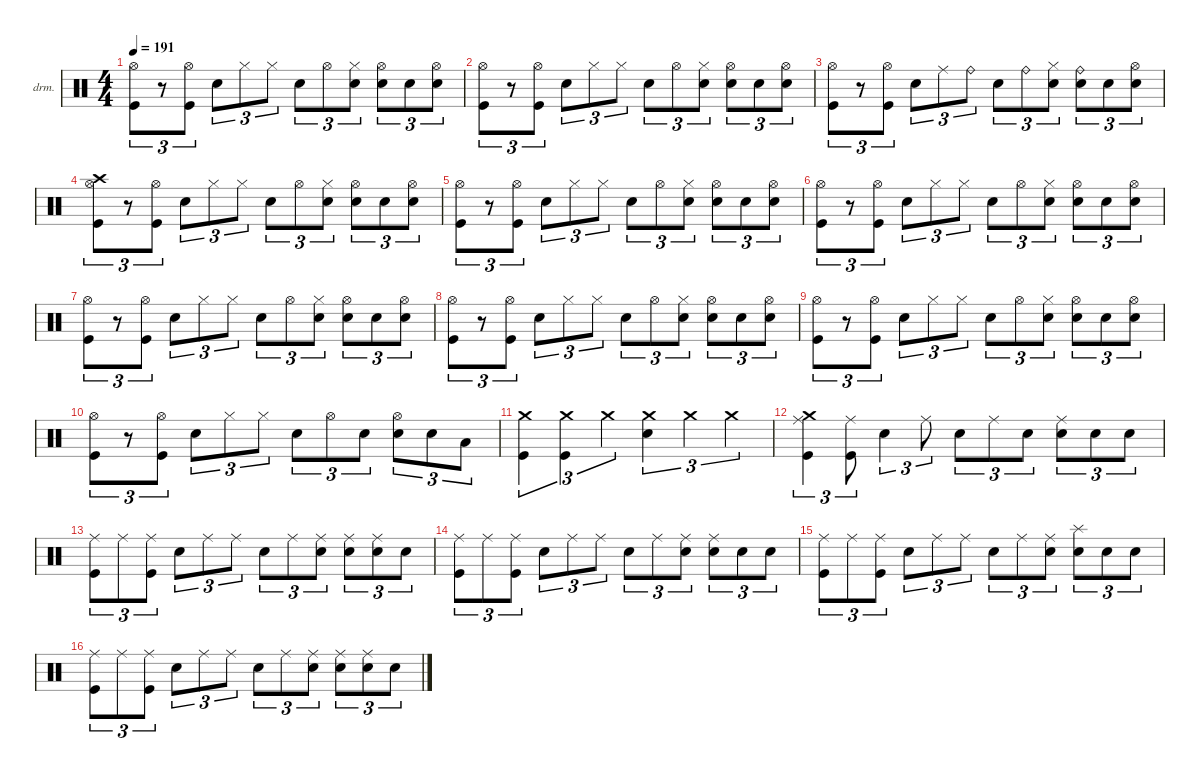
\defaultSystemsLayout 4
\hideDynamics
\bracketExtendMode nobrackets
\firstSystemTrackNameOrientation horizontal
\otherSystemsTrackNameOrientation horizontal
\track ("Drumkit" "drm.") {instrument percussion}
\staff {score}
\articulation defaults
\ts (4 4)
\tempo 191
\clef neutral
\ks c
("Kick (hit)" "Hi-Hat (open)").8{tu (3 2) dy mf beam Down} r.8{tu (3 2) beam Down} ("Kick (hit)" "Hi-Hat (open)").8{tu (3 2) beam Down} "Snare (hit) 2".8{tu (3 2) dy mp beam Down} "Hi-Hat (closed)".8{tu (3 2) beam Down} "Hi-Hat (closed)".8{tu (3 2) beam Down} "Snare (hit) 2".8{tu (3 2) dy f beam Down} "Hi-Hat (open)".8{tu (3 2) dy mp beam Down} ("Hi-Hat (closed)" "Snare (hit) 2").8{tu (3 2) dy p beam Down} ("Hi-Hat (open)" "Snare (hit) 2").8{tu (3 2) dy mp beam Down} "Snare (hit) 2".8{tu (3 2) beam Down} ("Snare (hit) 2" "Hi-Hat (open)").8{tu (3 2) beam Down} |
("Kick (hit)" "Hi-Hat (open)").8{tu (3 2) dy mf beam Down} r.8{tu (3 2) beam Down} ("Kick (hit)" "Hi-Hat (open)").8{tu (3 2) beam Down} "Snare (hit) 2".8{tu (3 2) dy mp beam Down} "Hi-Hat (closed)".8{tu (3 2) beam Down} "Hi-Hat (closed)".8{tu (3 2) beam Down} "Snare (hit) 2".8{tu (3 2) dy f beam Down} "Hi-Hat (open)".8{tu (3 2) dy mp beam Down} ("Hi-Hat (closed)" "Snare (hit) 2").8{tu (3 2) dy p beam Down} ("Hi-Hat (open)" "Snare (hit) 2").8{tu (3 2) dy mp beam Down} "Snare (hit) 2".8{tu (3 2) beam Down} ("Snare (hit) 2" "Hi-Hat (open)").8{tu (3 2) beam Down} |
("Kick (hit)" "Hi-Hat (open)").8{tu (3 2) dy mf beam Down} r.8{tu (3 2) beam Down} ("Kick (hit)" "Hi-Hat (open)").8{tu (3 2) beam Down} "Snare (hit) 2".8{tu (3 2) dy mp beam Down} "Ride (middle)".8{tu (3 2) beam Down} "Ride (bell)".8{tu (3 2) beam Down} "Snare (hit) 2".8{tu (3 2) dy f beam Down} "Ride (bell)".8{tu (3 2) dy mf beam Down} ("Hi-Hat (closed)" "Snare (hit) 2").8{tu (3 2) dy p beam Down} ("Snare (hit) 2" "Ride (bell)").8{tu (3 2) dy mp beam Down} "Snare (hit) 2".8{tu (3 2) beam Down} ("Snare (hit) 2" "Hi-Hat (open)").8{tu (3 2) beam Down} |
("Kick (hit)" "Hi-Hat (open)" "Crash high (hit)").8{tu (3 2) dy mf beam Down} r.8{tu (3 2) beam Down} ("Kick (hit)" "Hi-Hat (open)").8{tu (3 2) beam Down} "Snare (hit) 2".8{tu (3 2) dy mp beam Down} "Hi-Hat (closed)".8{tu (3 2) beam Down} "Hi-Hat (closed)".8{tu (3 2) beam Down} "Snare (hit) 2".8{tu (3 2) dy f beam Down} "Hi-Hat (open)".8{tu (3 2) dy mp beam Down} ("Hi-Hat (closed)" "Snare (hit) 2").8{tu (3 2) dy p beam Down} ("Hi-Hat (open)" "Snare (hit) 2").8{tu (3 2) dy mp beam Down} "Snare (hit) 2".8{tu (3 2) beam Down} ("Snare (hit) 2" "Hi-Hat (open)").8{tu (3 2) beam Down} |
("Kick (hit)" "Hi-Hat (open)").8{tu (3 2) dy mf beam Down} r.8{tu (3 2) beam Down} ("Kick (hit)" "Hi-Hat (open)").8{tu (3 2) beam Down} "Snare (hit) 2".8{tu (3 2) dy mp beam Down} "Hi-Hat (closed)".8{tu (3 2) beam Down} "Hi-Hat (closed)".8{tu (3 2) beam Down} "Snare (hit) 2".8{tu (3 2) dy f beam Down} "Hi-Hat (open)".8{tu (3 2) dy mp beam Down} ("Hi-Hat (closed)" "Snare (hit) 2").8{tu (3 2) dy p beam Down} ("Hi-Hat (open)" "Snare (hit) 2").8{tu (3 2) dy mp beam Down} "Snare (hit) 2".8{tu (3 2) beam Down} ("Snare (hit) 2" "Hi-Hat (open)").8{tu (3 2) beam Down} |
("Kick (hit)" "Hi-Hat (open)").8{tu (3 2) dy mf beam Down} r.8{tu (3 2) beam Down} ("Kick (hit)" "Hi-Hat (open)").8{tu (3 2) beam Down} "Snare (hit) 2".8{tu (3 2) dy mp beam Down} "Hi-Hat (closed)".8{tu (3 2) beam Down} "Hi-Hat (closed)".8{tu (3 2) beam Down} "Snare (hit) 2".8{tu (3 2) dy f beam Down} "Hi-Hat (open)".8{tu (3 2) dy mp beam Down} ("Hi-Hat (closed)" "Snare (hit) 2").8{tu (3 2) dy p beam Down} ("Hi-Hat (open)" "Snare (hit) 2").8{tu (3 2) dy mp beam Down} "Snare (hit) 2".8{tu (3 2) beam Down} ("Snare (hit) 2" "Hi-Hat (open)").8{tu (3 2) beam Down} |
("Kick (hit)" "Hi-Hat (open)").8{tu (3 2) dy mf beam Down} r.8{tu (3 2) beam Down} ("Kick (hit)" "Hi-Hat (open)").8{tu (3 2) beam Down} "Snare (hit) 2".8{tu (3 2) dy mp beam Down} "Hi-Hat (closed)".8{tu (3 2) beam Down} "Hi-Hat (closed)".8{tu (3 2) beam Down} "Snare (hit) 2".8{tu (3 2) dy f beam Down} "Hi-Hat (open)".8{tu (3 2) dy mp beam Down} ("Hi-Hat (closed)" "Snare (hit) 2").8{tu (3 2) dy p beam Down} ("Hi-Hat (open)" "Snare (hit) 2").8{tu (3 2) dy mp beam Down} "Snare (hit) 2".8{tu (3 2) beam Down} ("Snare (hit) 2" "Hi-Hat (open)").8{tu (3 2) beam Down} |
("Kick (hit)" "Hi-Hat (open)").8{tu (3 2) dy mf beam Down} r.8{tu (3 2) beam Down} ("Kick (hit)" "Hi-Hat (open)").8{tu (3 2) beam Down} "Snare (hit) 2".8{tu (3 2) dy mp beam Down} "Hi-Hat (closed)".8{tu (3 2) beam Down} "Hi-Hat (closed)".8{tu (3 2) beam Down} "Snare (hit) 2".8{tu (3 2) dy f beam Down} "Hi-Hat (open)".8{tu (3 2) dy mp beam Down} ("Hi-Hat (closed)" "Snare (hit) 2").8{tu (3 2) dy p beam Down} ("Hi-Hat (open)" "Snare (hit) 2").8{tu (3 2) dy mp beam Down} "Snare (hit) 2".8{tu (3 2) beam Down} ("Snare (hit) 2" "Hi-Hat (open)").8{tu (3 2) beam Down} |
("Kick (hit)" "Hi-Hat (open)").8{tu (3 2) dy mf beam Down} r.8{tu (3 2) beam Down} ("Kick (hit)" "Hi-Hat (open)").8{tu (3 2) beam Down} "Snare (hit) 2".8{tu (3 2) dy mp beam Down} "Hi-Hat (closed)".8{tu (3 2) beam Down} "Hi-Hat (closed)".8{tu (3 2) beam Down} "Snare (hit) 2".8{tu (3 2) dy f beam Down} "Hi-Hat (open)".8{tu (3 2) dy mp beam Down} ("Hi-Hat (closed)" "Snare (hit) 2").8{tu (3 2) dy p beam Down} ("Hi-Hat (open)" "Snare (hit) 2").8{tu (3 2) dy mp beam Down} "Snare (hit) 2".8{tu (3 2) beam Down} ("Snare (hit) 2" "Hi-Hat (open)").8{tu (3 2) beam Down} |
("Kick (hit)" "Hi-Hat (open)").8{tu (3 2) dy mf beam Down} r.8{tu (3 2) beam Down} ("Kick (hit)" "Hi-Hat (open)").8{tu (3 2) beam Down} "Snare (hit) 2".8{tu (3 2) dy mp beam Down} "Hi-Hat (closed)".8{tu (3 2) beam Down} "Hi-Hat (closed)".8{tu (3 2) beam Down} "Snare (hit) 2".8{tu (3 2) dy f beam Down} "Hi-Hat (open)".8{tu (3 2) beam Down} "Snare (hit) 2".8{tu (3 2) dy p beam Down} ("Hi-Hat (open)" "Snare (hit) 2").8{tu (3 2) dy mf beam Down} "Snare (hit) 2".8{tu (3 2) dy mp beam Down} "Low Tom (hit)".8{tu (3 2) beam Down} |
("Kick (hit)" "Crash medium (hit)").4{tu (3 2) beam Down} ("Kick (hit)" "Crash medium (hit)").4{tu (3 2) dy f beam Down} "Crash medium (hit)".4{tu (3 2) dy mf beam Down} ("Snare (hit) 2" "Crash medium (hit)").4{tu (3 2) dy f beam Down} "Crash medium (hit)".4{tu (3 2) dy mf beam Down} "Crash medium (hit)".4{tu (3 2) dy f beam Down} |
("Kick (hit)" "Ride (middle)" "Crash medium (hit)").4{tu (3 2) dy mf beam Down} ("Kick (hit)" "Ride (middle)").8{tu (3 2) beam Down} "Snare (hit) 2".4{tu (3 2) dy mp beam Down} "Ride (middle)".8{tu (3 2) beam Down} "Snare (hit) 2".8{tu (3 2) dy f beam Down} "Ride (middle)".8{tu (3 2) dy mp beam Down} "Snare (hit) 2".8{tu (3 2) dy p beam Down} ("Snare (hit) 2" "Ride (middle)").8{tu (3 2) dy mp beam Down} "Snare (hit) 2".8{tu (3 2) beam Down} "Snare (hit) 2".8{tu (3 2) beam Down} |
("Kick (hit)" "Ride (middle)").8{tu (3 2) dy mf beam Down} "Ride (middle)".8{tu (3 2) dy mp beam Down} ("Kick (hit)" "Ride (middle)").8{tu (3 2) dy mf beam Down} "Snare (hit) 2".8{tu (3 2) dy mp beam Down} "Ride (middle)".8{tu (3 2) beam Down} "Ride (middle)".8{tu (3 2) beam Down} "Snare (hit) 2".8{tu (3 2) dy f beam Down} "Ride (middle)".8{tu (3 2) dy mp beam Down} ("Snare (hit) 2" "Ride (middle)").8{tu (3 2) dy p beam Down} ("Snare (hit) 2" "Ride (middle)").8{tu (3 2) dy mp beam Down} ("Snare (hit) 2" "Ride (middle)").8{tu (3 2) beam Down} "Snare (hit) 2".8{tu (3 2) beam Down} |
("Kick (hit)" "Ride (middle)").8{tu (3 2) dy mf beam Down} "Ride (middle)".8{tu (3 2) dy mp beam Down} ("Kick (hit)" "Ride (middle)").8{tu (3 2) dy mf beam Down} "Snare (hit) 2".8{tu (3 2) dy mp beam Down} "Ride (middle)".8{tu (3 2) beam Down} "Ride (middle)".8{tu (3 2) beam Down} "Snare (hit) 2".8{tu (3 2) dy f beam Down} "Ride (middle)".8{tu (3 2) dy mp beam Down} ("Snare (hit) 2" "Ride (middle)").8{tu (3 2) dy p beam Down} ("Snare (hit) 2" "Ride (middle)").8{tu (3 2) dy mp beam Down} "Snare (hit) 2".8{tu (3 2) beam Down} "Snare (hit) 2".8{tu (3 2) beam Down} |
("Kick (hit)" "Ride (middle)").8{tu (3 2) dy mf beam Down} "Ride (middle)".8{tu (3 2) dy mp beam Down} ("Kick (hit)" "Ride (middle)").8{tu (3 2) dy mf beam Down} "Snare (hit) 2".8{tu (3 2) dy mp beam Down} "Ride (middle)".8{tu (3 2) beam Down} "Ride (middle)".8{tu (3 2) beam Down} "Snare (hit) 2".8{tu (3 2) dy f beam Down} "Ride (middle)".8{tu (3 2) dy mp beam Down} ("Snare (hit) 2" "Ride (middle)").8{tu (3 2) dy p beam Down} ("Snare (hit) 2" "Splash (hit)").8{tu (3 2) dy mp beam Down} "Snare (hit) 2".8{tu (3 2) beam Down} "Snare (hit) 2".8{tu (3 2) beam Down} |
("Kick (hit)" "Ride (middle)").8{tu (3 2) dy mf beam Down} "Ride (middle)".8{tu (3 2) dy mp beam Down} ("Kick (hit)" "Ride (middle)").8{tu (3 2) dy mf beam Down} "Snare (hit) 2".8{tu (3 2) dy mp beam Down} "Ride (middle)".8{tu (3 2) beam Down} "Ride (middle)".8{tu (3 2) beam Down} "Snare (hit) 2".8{tu (3 2) dy f beam Down} "Ride (middle)".8{tu (3 2) dy mp beam Down} ("Snare (hit) 2" "Ride (middle)").8{tu (3 2) dy p beam Down} ("Snare (hit) 2" "Ride (middle)").8{tu (3 2) dy mp beam Down} ("Snare (hit) 2" "Ride (middle)").8{tu (3 2) beam Down} "Snare (hit) 2".8{tu (3 2) beam Down}
